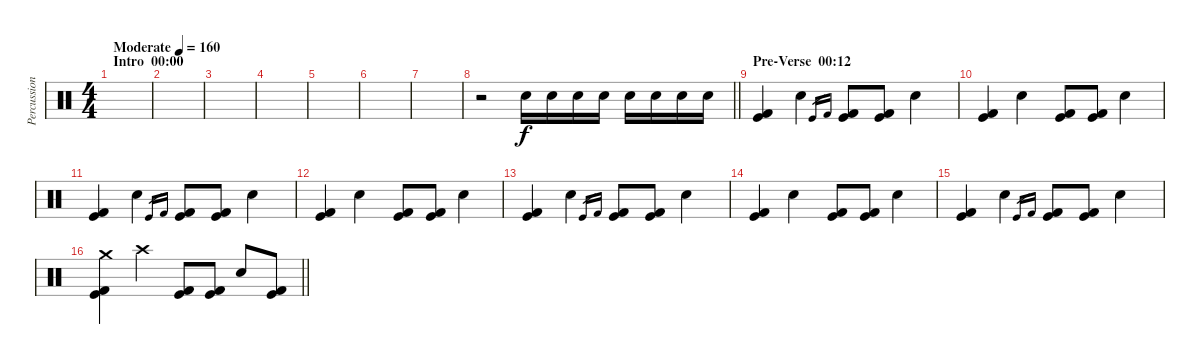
\track ("Percussion" "Percussion") {instrument percussion}
\staff {score}
\articulation defaults
\ts (4 4)
\section ("" "Intro  00:00")
\tempo (160 "Moderate")
\clef neutral
\ks c
|
|
|
|
|
|
|
\barLineRight lightlight
r.2 "Electric Snare (hit)".16 "Electric Snare (hit)".16 "Electric Snare (hit)".16 "Electric Snare (hit)".16 "Electric Snare (hit)".16 "Electric Snare (hit)".16 "Electric Snare (hit)".16 "Electric Snare (hit)".16 |
\section ("" "Pre-Verse  00:12")
("Kick (hit)" "Kick (hit) 2").4 "Electric Snare (hit)".4 "Kick (hit)".16{gr} "Kick (hit) 2".16{gr} ("Kick (hit)" "Kick (hit) 2").8 ("Kick (hit)" "Kick (hit) 2").8 "Electric Snare (hit)".4 |
("Kick (hit)" "Kick (hit) 2").4 "Electric Snare (hit)".4 ("Kick (hit)" "Kick (hit) 2").8 ("Kick (hit)" "Kick (hit) 2").8 "Electric Snare (hit)".4 |
("Kick (hit)" "Kick (hit) 2").4 "Electric Snare (hit)".4 "Kick (hit)".16{gr} "Kick (hit) 2".16{gr} ("Kick (hit)" "Kick (hit) 2").8 ("Kick (hit)" "Kick (hit) 2").8 "Electric Snare (hit)".4 |
("Kick (hit)" "Kick (hit) 2").4 "Electric Snare (hit)".4 ("Kick (hit)" "Kick (hit) 2").8 ("Kick (hit)" "Kick (hit) 2").8 "Electric Snare (hit)".4 |
("Kick (hit)" "Kick (hit) 2").4 "Electric Snare (hit)".4 "Kick (hit)".16{gr} "Kick (hit) 2".16{gr} ("Kick (hit)" "Kick (hit) 2").8 ("Kick (hit)" "Kick (hit) 2").8 "Electric Snare (hit)".4 |
("Kick (hit)" "Kick (hit) 2").4 "Electric Snare (hit)".4 ("Kick (hit)" "Kick (hit) 2").8 ("Kick (hit)" "Kick (hit) 2").8 "Electric Snare (hit)".4 |
("Kick (hit)" "Kick (hit) 2").4 "Electric Snare (hit)".4 "Kick (hit)".16{gr} "Kick (hit) 2".16{gr} ("Kick (hit)" "Kick (hit) 2").8 ("Kick (hit)" "Kick (hit) 2").8 "Electric Snare (hit)".4 |
\barLineRight lightlight
("Crash medium (hit)" "Kick (hit)" "Kick (hit) 2").4 "Crash high (hit)".4 ("Kick (hit)" "Kick (hit) 2").8 ("Kick (hit)" "Kick (hit) 2").8 "Electric Snare (hit)".8 ("Kick (hit)" "Kick (hit) 2").8
